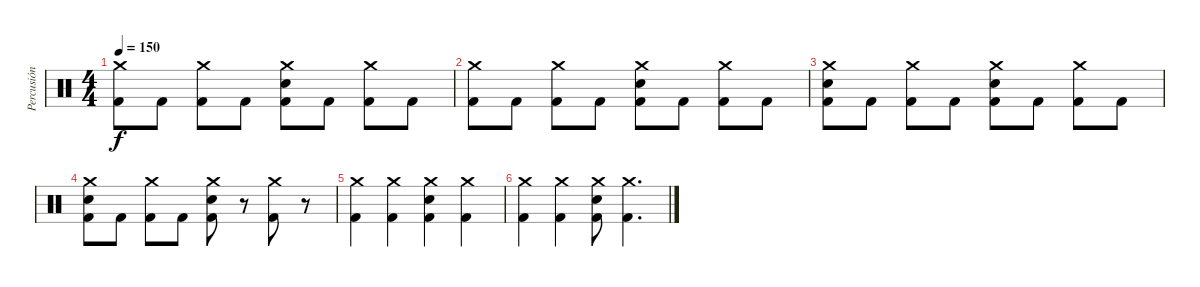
\track ("Percusión" "Percusión") {instrument percussion}
\staff {score}
\articulation defaults
\ts (4 4)
\tempo 150
\clef neutral
\ks c
("Crash medium (hit)" "Kick (hit) 2").8{dy f} "Kick (hit) 2".8 ("Crash medium (hit)" "Kick (hit) 2").8 "Kick (hit) 2".8 ("Crash medium (hit)" "Electric Snare (hit)" "Kick (hit) 2").8 "Kick (hit) 2".8 ("Crash medium (hit)" "Kick (hit) 2").8 "Kick (hit) 2".8 |
("Crash medium (hit)" "Kick (hit) 2").8 "Kick (hit) 2".8 ("Crash medium (hit)" "Kick (hit) 2").8 "Kick (hit) 2".8 ("Crash medium (hit)" "Electric Snare (hit)" "Kick (hit) 2").8 "Kick (hit) 2".8 ("Crash medium (hit)" "Kick (hit) 2").8 "Kick (hit) 2".8 |
("Crash medium (hit)" "Electric Snare (hit)" "Kick (hit) 2").8 "Kick (hit) 2".8 ("Crash medium (hit)" "Kick (hit) 2").8 "Kick (hit) 2".8 ("Crash medium (hit)" "Electric Snare (hit)" "Kick (hit) 2").8 "Kick (hit) 2".8 ("Crash medium (hit)" "Kick (hit) 2").8 "Kick (hit) 2".8 |
("Crash medium (hit)" "Electric Snare (hit)" "Kick (hit) 2").8 "Kick (hit) 2".8 ("Crash medium (hit)" "Kick (hit) 2").8 "Kick (hit) 2".8 ("Crash medium (hit)" "Electric Snare (hit)" "Kick (hit) 2").8 r.8 ("Crash medium (hit)" "Kick (hit) 2").8 r.8 |
("Crash medium (hit)" "Kick (hit) 2").4 ("Crash medium (hit)" "Kick (hit) 2").4 ("Crash medium (hit)" "Electric Snare (hit)" "Kick (hit) 2").4 ("Crash medium (hit)" "Kick (hit) 2").4 |
("Crash medium (hit)" "Kick (hit) 2").4 ("Crash medium (hit)" "Kick (hit) 2").4 ("Crash medium (hit)" "Electric Snare (hit)" "Kick (hit) 2").8 ("Crash medium (hit)" "Kick (hit) 2").4{d}
